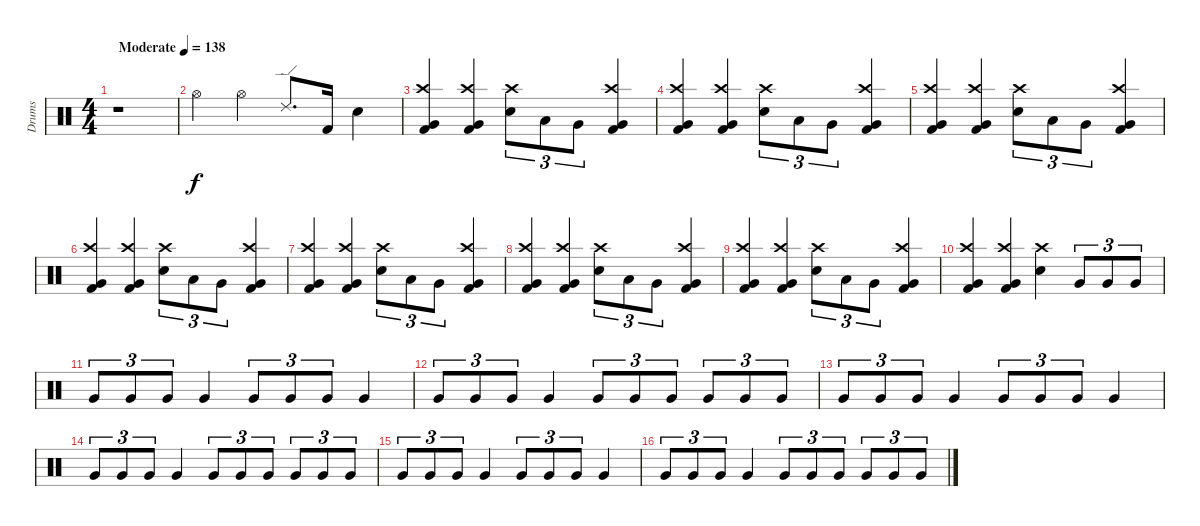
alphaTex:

\track ("Drums" "Drums") {instrument percussion}
\staff {score}
\articulation defaults
\ts (4 4)
\tempo (138 "Moderate")
\clef neutral
\ks c
r.1{dy f} |
"Hi-Hat (open)".4 "Hi-Hat (open)".4 "Ride (edge) 2".8{d} "Kick (hit) 2".16 "Snare (hit) 2".4 |
("Crash high (hit)" "Very Low Tom (hit)" "Kick (hit) 2").4 ("Crash high (hit)" "Very Low Tom (hit)" "Kick (hit) 2").4 ("Crash high (hit)" "Snare (hit) 2").8{tu (3 2)} "Low Tom (hit)".8{tu (3 2)} "Very Low Tom (hit)".8{tu (3 2)} ("Crash high (hit)" "Very Low Tom (hit)" "Kick (hit) 2").4 |
("Crash high (hit)" "Very Low Tom (hit)" "Kick (hit) 2").4 ("Crash high (hit)" "Very Low Tom (hit)" "Kick (hit) 2").4 ("Crash high (hit)" "Snare (hit) 2").8{tu (3 2)} "Low Tom (hit)".8{tu (3 2)} "Very Low Tom (hit)".8{tu (3 2)} ("Crash high (hit)" "Very Low Tom (hit)" "Kick (hit) 2").4 |
("Crash high (hit)" "Very Low Tom (hit)" "Kick (hit) 2").4 ("Crash high (hit)" "Very Low Tom (hit)" "Kick (hit) 2").4 ("Crash high (hit)" "Snare (hit) 2").8{tu (3 2)} "Low Tom (hit)".8{tu (3 2)} "Very Low Tom (hit)".8{tu (3 2)} ("Crash high (hit)" "Very Low Tom (hit)" "Kick (hit) 2").4 |
("Crash high (hit)" "Very Low Tom (hit)" "Kick (hit) 2").4 ("Crash high (hit)" "Very Low Tom (hit)" "Kick (hit) 2").4 ("Crash high (hit)" "Snare (hit) 2").8{tu (3 2)} "Low Tom (hit)".8{tu (3 2)} "Very Low Tom (hit)".8{tu (3 2)} ("Crash high (hit)" "Very Low Tom (hit)" "Kick (hit) 2").4 |
("Crash high (hit)" "Very Low Tom (hit)" "Kick (hit) 2").4 ("Crash high (hit)" "Very Low Tom (hit)" "Kick (hit) 2").4 ("Crash high (hit)" "Snare (hit) 2").8{tu (3 2)} "Low Tom (hit)".8{tu (3 2)} "Very Low Tom (hit)".8{tu (3 2)} ("Crash high (hit)" "Very Low Tom (hit)" "Kick (hit) 2").4 |
("Crash high (hit)" "Very Low Tom (hit)" "Kick (hit) 2").4 ("Crash high (hit)" "Very Low Tom (hit)" "Kick (hit) 2").4 ("Crash high (hit)" "Snare (hit) 2").8{tu (3 2)} "Low Tom (hit)".8{tu (3 2)} "Very Low Tom (hit)".8{tu (3 2)} ("Crash high (hit)" "Very Low Tom (hit)" "Kick (hit) 2").4 |
("Crash high (hit)" "Very Low Tom (hit)" "Kick (hit) 2").4 ("Crash high (hit)" "Very Low Tom (hit)" "Kick (hit) 2").4 ("Crash high (hit)" "Snare (hit) 2").8{tu (3 2)} "Low Tom (hit)".8{tu (3 2)} "Very Low Tom (hit)".8{tu (3 2)} ("Crash high (hit)" "Very Low Tom (hit)" "Kick (hit) 2").4 |
("Crash high (hit)" "Very Low Tom (hit)" "Kick (hit) 2").4 ("Crash high (hit)" "Very Low Tom (hit)" "Kick (hit) 2").4 ("Crash high (hit)" "Snare (hit) 2").4 "Very Low Tom (hit)".8{tu (3 2)} "Very Low Tom (hit)".8{tu (3 2)} "Very Low Tom (hit)".8{tu (3 2)} |
"Very Low Tom (hit)".8{tu (3 2)} "Very Low Tom (hit)".8{tu (3 2)} "Very Low Tom (hit)".8{tu (3 2)} "Very Low Tom (hit)".4 "Very Low Tom (hit)".8{tu (3 2)} "Very Low Tom (hit)".8{tu (3 2)} "Very Low Tom (hit)".8{tu (3 2)} "Very Low Tom (hit)".4 |
"Very Low Tom (hit)".8{tu (3 2)} "Very Low Tom (hit)".8{tu (3 2)} "Very Low Tom (hit)".8{tu (3 2)} "Very Low Tom (hit)".4 "Very Low Tom (hit)".8{tu (3 2)} "Very Low Tom (hit)".8{tu (3 2)} "Very Low Tom (hit)".8{tu (3 2)} "Very Low Tom (hit)".8{tu (3 2)} "Very Low Tom (hit)".8{tu (3 2)} "Very Low Tom (hit)".8{tu (3 2)} |
"Very Low Tom (hit)".8{tu (3 2)} "Very Low Tom (hit)".8{tu (3 2)} "Very Low Tom (hit)".8{tu (3 2)} "Very Low Tom (hit)".4 "Very Low Tom (hit)".8{tu (3 2)} "Very Low Tom (hit)".8{tu (3 2)} "Very Low Tom (hit)".8{tu (3 2)} "Very Low Tom (hit)".4 |
"Very Low Tom (hit)".8{tu (3 2)} "Very Low Tom (hit)".8{tu (3 2)} "Very Low Tom (hit)".8{tu (3 2)} "Very Low Tom (hit)".4 "Very Low Tom (hit)".8{tu (3 2)} "Very Low Tom (hit)".8{tu (3 2)} "Very Low Tom (hit)".8{tu (3 2)} "Very Low Tom (hit)".8{tu (3 2)} "Very Low Tom (hit)".8{tu (3 2)} "Very Low Tom (hit)".8{tu (3 2)} |
"Very Low Tom (hit)".8{tu (3 2)} "Very Low Tom (hit)".8{tu (3 2)} "Very Low Tom (hit)".8{tu (3 2)} "Very Low Tom (hit)".4 "Very Low Tom (hit)".8{tu (3 2)} "Very Low Tom (hit)".8{tu (3 2)} "Very Low Tom (hit)".8{tu (3 2)} "Very Low Tom (hit)".4 |
"Very Low Tom (hit)".8{tu (3 2)} "Very Low Tom (hit)".8{tu (3 2)} "Very Low Tom (hit)".8{tu (3 2)} "Very Low Tom (hit)".4 "Very Low Tom (hit)".8{tu (3 2)} "Very Low Tom (hit)".8{tu (3 2)} "Very Low Tom (hit)".8{tu (3 2)} "Very Low Tom (hit)".8{tu (3 2)} "Very Low Tom (hit)".8{tu (3 2)} "Very Low Tom (hit)".8{tu (3 2)}
